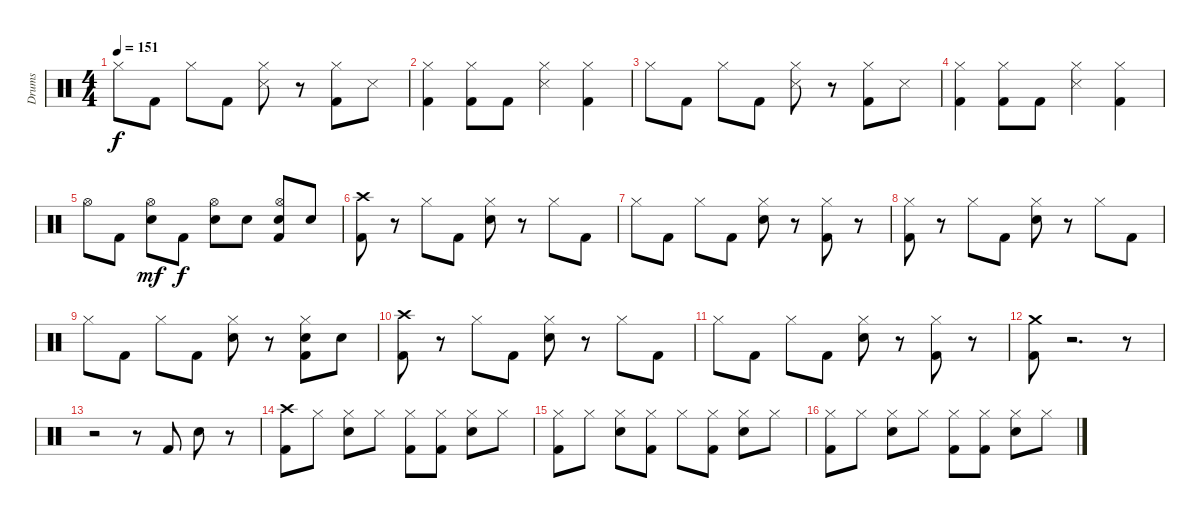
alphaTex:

\track ("Drums" "Drums") {instrument percussion}
\staff {score}
\articulation defaults
\ts (4 4)
\tempo 151
\clef neutral
\ks c "Hi-Hat (closed)".8{dy f} "Kick (hit) 2".8 "Hi-Hat (closed)".8 "Kick (hit) 2".8
("Metronome (hit)" "Hi-Hat (closed)").8 r.8 ("Kick (hit) 2" "Hi-Hat (closed)").8 "Metronome (hit)".8 |
("Kick (hit) 2" "Hi-Hat (closed)").4 ("Kick (hit) 2" "Hi-Hat (closed)").8 "Kick (hit) 2".8 ("Metronome (hit)" "Hi-Hat (closed)").4 ("Kick (hit) 2" "Hi-Hat (closed)").4 |
"Hi-Hat (closed)".8 "Kick (hit) 2".8 "Hi-Hat (closed)".8 "Kick (hit) 2".8 ("Metronome (hit)" "Hi-Hat (closed)").8 r.8 ("Kick (hit) 2" "Hi-Hat (closed)").8 "Metronome (hit)".8 |
("Kick (hit) 2" "Hi-Hat (closed)").4 ("Kick (hit) 2" "Hi-Hat (closed)").8 "Kick (hit) 2".8 ("Metronome (hit)" "Hi-Hat (closed)").4 ("Kick (hit) 2" "Hi-Hat (closed)").4 |
"Hi-Hat (open)".8 "Kick (hit) 2".8 ("Electric Snare (hit)" "Hi-Hat (open)").8{dy mf} "Kick (hit) 2".8{dy f} ("Electric Snare (hit)" "Hi-Hat (open)").8 "Electric Snare (hit)".8 ("Electric Snare (hit)" "Kick (hit) 2" "Hi-Hat (open)").8 "Electric Snare (hit)".8 |
("Kick (hit) 2" "Crash high (hit)").8 r.8 "Hi-Hat (closed)".8 "Kick (hit) 2".8 ("Electric Snare (hit)" "Hi-Hat (closed)").8 r.8 "Hi-Hat (closed)".8 "Kick (hit) 2".8 |
"Hi-Hat (closed)".8 "Kick (hit) 2".8 "Hi-Hat (closed)".8 "Kick (hit) 2".8 ("Electric Snare (hit)" "Hi-Hat (closed)").8 r.8 ("Kick (hit) 2" "Hi-Hat (closed)").8 r.8 |
("Kick (hit) 2" "Hi-Hat (closed)").8 r.8 "Hi-Hat (closed)".8 "Kick (hit) 2".8 ("Electric Snare (hit)" "Hi-Hat (closed)").8 r.8 "Hi-Hat (closed)".8 "Kick (hit) 2".8 |
"Hi-Hat (closed)".8 "Kick (hit) 2".8 "Hi-Hat (closed)".8 "Kick (hit) 2".8 ("Electric Snare (hit)" "Hi-Hat (closed)").8 r.8 ("Electric Snare (hit)" "Kick (hit) 2" "Hi-Hat (closed)").8 "Electric Snare (hit)".8 |
("Kick (hit) 2" "Crash high (hit)").8 r.8 "Hi-Hat (closed)".8 "Kick (hit) 2".8 ("Electric Snare (hit)" "Hi-Hat (closed)").8 r.8 "Hi-Hat (closed)".8 "Kick (hit) 2".8 |
"Hi-Hat (closed)".8 "Kick (hit) 2".8 "Hi-Hat (closed)".8 "Kick (hit) 2".8 ("Electric Snare (hit)" "Hi-Hat (closed)").8 r.8 ("Kick (hit) 2" "Hi-Hat (closed)").8 r.8 |
("Kick (hit) 2" "Crash medium (hit)").8 r.2{d} r.8 |
r.2 r.8 "Kick (hit) 2".8{volume 13} "Electric Snare (hit)".8 r.8 |
("Crash high (hit)" "Kick (hit) 2").8 "Hi-Hat (closed)".8 ("Electric Snare (hit)" "Hi-Hat (closed)").8 "Hi-Hat (closed)".8 ("Kick (hit) 2" "Hi-Hat (closed)").8 ("Kick (hit) 2" "Hi-Hat (closed)").8 ("Electric Snare (hit)" "Hi-Hat (closed)").8 "Hi-Hat (closed)".8 |
("Kick (hit) 2" "Hi-Hat (closed)").8 "Hi-Hat (closed)".8 ("Electric Snare (hit)" "Hi-Hat (closed)").8 ("Kick (hit) 2" "Hi-Hat (closed)").8 "Hi-Hat (closed)".8 ("Kick (hit) 2" "Hi-Hat (closed)").8 ("Electric Snare (hit)" "Hi-Hat (closed)").8 "Hi-Hat (closed)".8 |
("Hi-Hat (closed)" "Kick (hit) 2").8 "Hi-Hat (closed)".8 ("Electric Snare (hit)" "Hi-Hat (closed)").8 "Hi-Hat (closed)".8 ("Kick (hit) 2" "Hi-Hat (closed)").8 ("Kick (hit) 2" "Hi-Hat (closed)").8 ("Electric Snare (hit)" "Hi-Hat (closed)").8 "Hi-Hat (closed)".8
